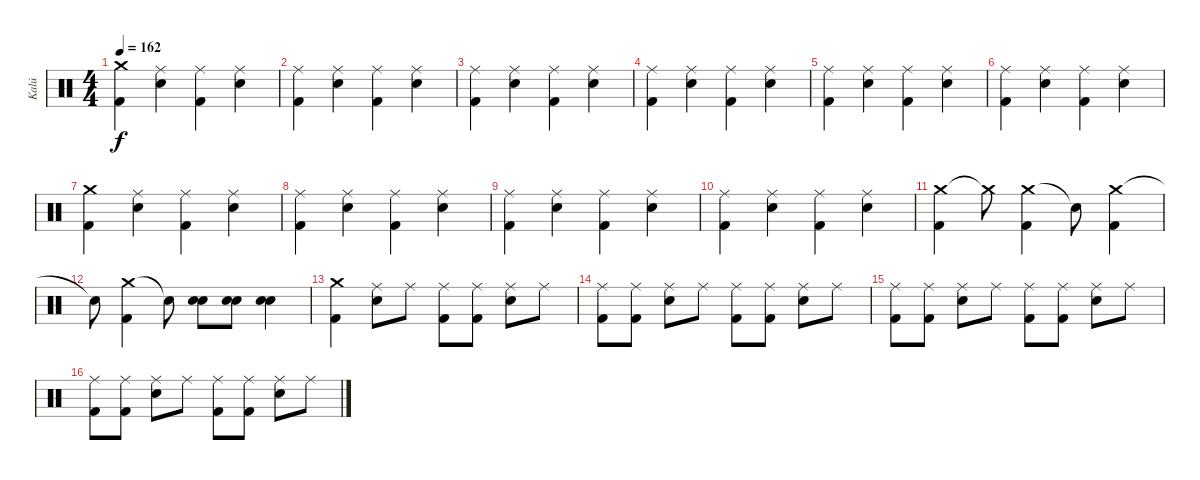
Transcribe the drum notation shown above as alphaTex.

\track ("Kalú" "Kalú") {instrument percussion}
\staff {score}
\articulation defaults
\ts (4 4)
\tempo 162
\clef neutral
\ks c
("Crash medium (hit)" "Kick (hit) 2").4{dy f} ("Ride (middle)" "Electric Snare (hit)").4 ("Ride (middle)" "Kick (hit) 2").4 ("Ride (middle)" "Electric Snare (hit)").4 |
("Ride (middle)" "Kick (hit) 2").4 ("Ride (middle)" "Electric Snare (hit)").4 ("Ride (middle)" "Kick (hit) 2").4 ("Ride (middle)" "Electric Snare (hit)").4 |
("Ride (middle)" "Kick (hit) 2").4 ("Ride (middle)" "Electric Snare (hit)").4 ("Ride (middle)" "Kick (hit) 2").4 ("Ride (middle)" "Electric Snare (hit)").4 |
("Ride (middle)" "Kick (hit) 2").4 ("Ride (middle)" "Electric Snare (hit)").4 ("Ride (middle)" "Kick (hit) 2").4 ("Ride (middle)" "Electric Snare (hit)").4 |
("Ride (middle)" "Kick (hit) 2").4 ("Ride (middle)" "Electric Snare (hit)").4 ("Ride (middle)" "Kick (hit) 2").4 ("Ride (middle)" "Electric Snare (hit)").4 |
("Ride (middle)" "Kick (hit) 2").4 ("Ride (middle)" "Electric Snare (hit)").4 ("Ride (middle)" "Kick (hit) 2").4 ("Ride (middle)" "Electric Snare (hit)").4 |
("Crash medium (hit)" "Kick (hit) 2").4 ("Ride (middle)" "Electric Snare (hit)").4 ("Ride (middle)" "Kick (hit) 2").4 ("Ride (middle)" "Electric Snare (hit)").4 |
("Ride (middle)" "Kick (hit) 2").4 ("Ride (middle)" "Electric Snare (hit)").4 ("Ride (middle)" "Kick (hit) 2").4 ("Ride (middle)" "Electric Snare (hit)").4 |
("Ride (middle)" "Kick (hit) 2").4 ("Ride (middle)" "Electric Snare (hit)").4 ("Ride (middle)" "Kick (hit) 2").4 ("Ride (middle)" "Electric Snare (hit)").4 |
("Ride (middle)" "Kick (hit) 2").4 ("Ride (middle)" "Electric Snare (hit)").4 ("Ride (middle)" "Kick (hit) 2").4 ("Ride (middle)" "Electric Snare (hit)").4 |
("Crash medium (hit)" "Kick (hit) 2").4 "Crash medium (hit)"{t}.8 ("Crash medium (hit)" "Kick (hit) 2").4 "Snare (hit)"{t}.8 ("Crash medium (hit)" "Kick (hit) 2").4 |
"Snare (hit)"{t}.8 ("Crash medium (hit)" "Kick (hit) 2").4 "Electric Snare (hit)"{t}.8 ("Electric Snare (hit)" "Electric Snare (hit)").8 ("Electric Snare (hit)" "Electric Snare (hit)").8 ("Electric Snare (hit)" "Electric Snare (hit)").4 |
("Crash medium (hit)" "Kick (hit) 2").4 ("Ride (middle)" "Electric Snare (hit)").8 "Ride (middle)".8 ("Ride (middle)" "Kick (hit) 2").8 ("Ride (middle)" "Kick (hit) 2").8 ("Ride (middle)" "Electric Snare (hit)").8 "Ride (middle)".8 |
("Ride (middle)" "Kick (hit) 2").8 ("Ride (middle)" "Kick (hit) 2").8 ("Ride (middle)" "Electric Snare (hit)").8 "Ride (middle)".8 ("Ride (middle)" "Kick (hit) 2").8 ("Ride (middle)" "Kick (hit) 2").8 ("Ride (middle)" "Electric Snare (hit)").8 "Ride (middle)".8 |
("Ride (middle)" "Kick (hit) 2").8 ("Ride (middle)" "Kick (hit) 2").8 ("Ride (middle)" "Electric Snare (hit)").8 "Ride (middle)".8 ("Ride (middle)" "Kick (hit) 2").8 ("Ride (middle)" "Kick (hit) 2").8 ("Ride (middle)" "Electric Snare (hit)").8 "Ride (middle)".8 |
("Ride (middle)" "Kick (hit) 2").8 ("Ride (middle)" "Kick (hit) 2").8 ("Ride (middle)" "Electric Snare (hit)").8 "Ride (middle)".8 ("Ride (middle)" "Kick (hit) 2").8 ("Ride (middle)" "Kick (hit) 2").8 ("Ride (middle)" "Electric Snare (hit)").8 "Ride (middle)".8
